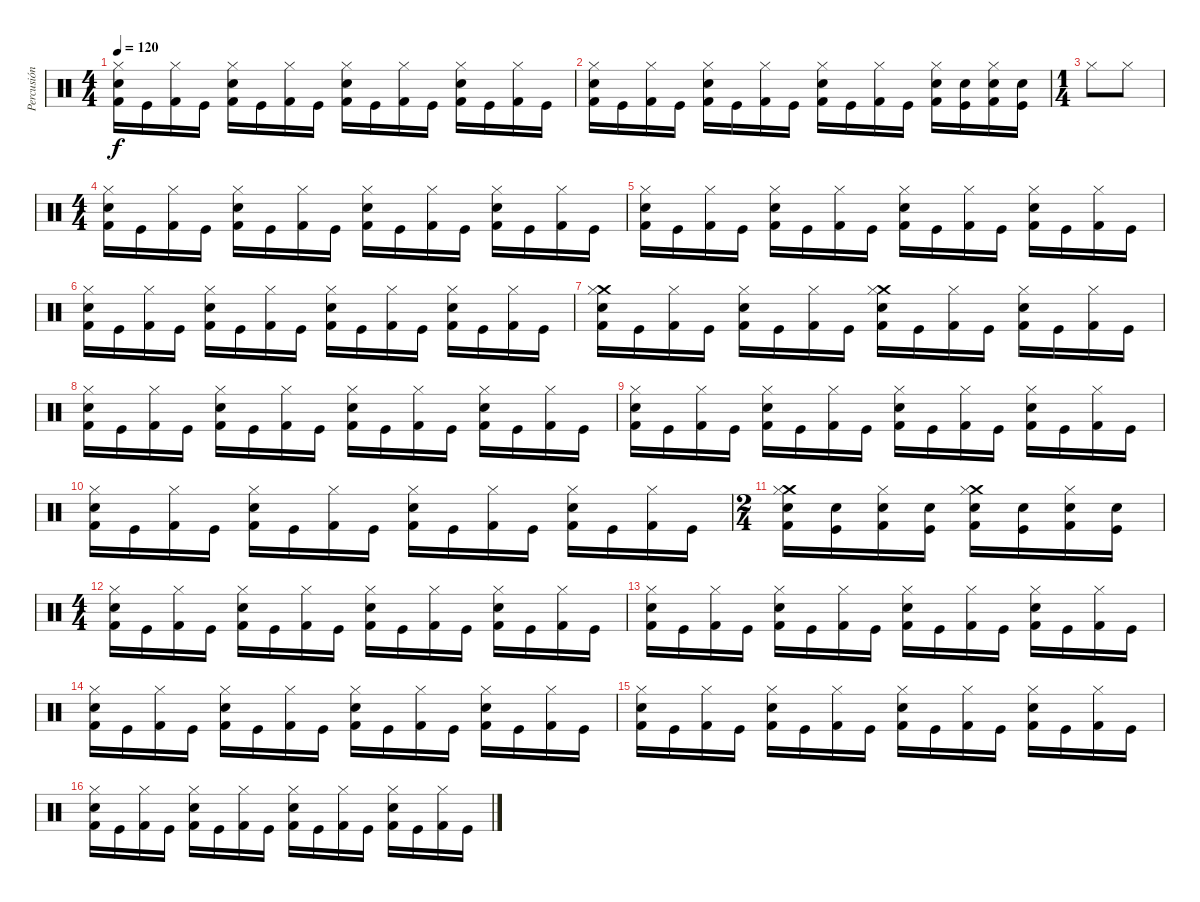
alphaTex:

\track ("Percusión" "Percusión") {instrument percussion}
\staff {score}
\articulation defaults
\ts (4 4)
\tempo 120
\clef neutral
\ks c
("Hi-Hat (closed)" "Snare (hit) 2" "Kick (hit) 2").16{dy f} "Kick (hit)".16 ("Hi-Hat (closed)" "Kick (hit) 2").16 "Kick (hit)".16 ("Hi-Hat (closed)" "Snare (hit) 2" "Kick (hit) 2").16 "Kick (hit)".16 ("Hi-Hat (closed)" "Kick (hit) 2").16 "Kick (hit)".16 ("Hi-Hat (closed)" "Snare (hit) 2" "Kick (hit) 2").16 "Kick (hit)".16 ("Hi-Hat (closed)" "Kick (hit) 2").16 "Kick (hit)".16 ("Hi-Hat (closed)" "Snare (hit) 2" "Kick (hit) 2").16 "Kick (hit)".16 ("Hi-Hat (closed)" "Kick (hit) 2").16 "Kick (hit)".16 |
("Hi-Hat (closed)" "Snare (hit) 2" "Kick (hit) 2").16 "Kick (hit)".16 ("Hi-Hat (closed)" "Kick (hit) 2").16 "Kick (hit)".16 ("Hi-Hat (closed)" "Snare (hit) 2" "Kick (hit) 2").16 "Kick (hit)".16 ("Hi-Hat (closed)" "Kick (hit) 2").16 "Kick (hit)".16 ("Hi-Hat (closed)" "Snare (hit) 2" "Kick (hit) 2").16 "Kick (hit)".16 ("Hi-Hat (closed)" "Kick (hit) 2").16 "Kick (hit)".16 ("Hi-Hat (closed)" "Snare (hit) 2" "Kick (hit) 2").16 ("Snare (hit) 2" "Kick (hit)").16 ("Hi-Hat (closed)" "Snare (hit) 2" "Kick (hit) 2").16 ("Snare (hit) 2" "Kick (hit)").16 |
\ts (1 4)
"Hi-Hat (closed)".8 "Hi-Hat (closed)".8 |
\ts (4 4)
("Hi-Hat (closed)" "Snare (hit) 2" "Kick (hit) 2").16 "Kick (hit)".16 ("Hi-Hat (closed)" "Kick (hit) 2").16 "Kick (hit)".16 ("Hi-Hat (closed)" "Snare (hit) 2" "Kick (hit) 2").16 "Kick (hit)".16 ("Hi-Hat (closed)" "Kick (hit) 2").16 "Kick (hit)".16 ("Hi-Hat (closed)" "Snare (hit) 2" "Kick (hit) 2").16 "Kick (hit)".16 ("Hi-Hat (closed)" "Kick (hit) 2").16 "Kick (hit)".16 ("Hi-Hat (closed)" "Snare (hit) 2" "Kick (hit) 2").16 "Kick (hit)".16 ("Hi-Hat (closed)" "Kick (hit) 2").16 "Kick (hit)".16 |
("Hi-Hat (closed)" "Snare (hit) 2" "Kick (hit) 2").16 "Kick (hit)".16 ("Hi-Hat (closed)" "Kick (hit) 2").16 "Kick (hit)".16 ("Hi-Hat (closed)" "Snare (hit) 2" "Kick (hit) 2").16 "Kick (hit)".16 ("Hi-Hat (closed)" "Kick (hit) 2").16 "Kick (hit)".16 ("Hi-Hat (closed)" "Snare (hit) 2" "Kick (hit) 2").16 "Kick (hit)".16 ("Hi-Hat (closed)" "Kick (hit) 2").16 "Kick (hit)".16 ("Hi-Hat (closed)" "Snare (hit) 2" "Kick (hit) 2").16 "Kick (hit)".16 ("Hi-Hat (closed)" "Kick (hit) 2").16 "Kick (hit)".16 |
("Hi-Hat (closed)" "Snare (hit) 2" "Kick (hit) 2").16 "Kick (hit)".16 ("Hi-Hat (closed)" "Kick (hit) 2").16 "Kick (hit)".16 ("Hi-Hat (closed)" "Snare (hit) 2" "Kick (hit) 2").16 "Kick (hit)".16 ("Hi-Hat (closed)" "Kick (hit) 2").16 "Kick (hit)".16 ("Hi-Hat (closed)" "Snare (hit) 2" "Kick (hit) 2").16 "Kick (hit)".16 ("Hi-Hat (closed)" "Kick (hit) 2").16 "Kick (hit)".16 ("Hi-Hat (closed)" "Snare (hit) 2" "Kick (hit) 2").16 "Kick (hit)".16 ("Hi-Hat (closed)" "Kick (hit) 2").16 "Kick (hit)".16 |
("Crash medium (hit)" "Hi-Hat (closed)" "Snare (hit) 2" "Kick (hit) 2").16 "Kick (hit)".16 ("Hi-Hat (closed)" "Kick (hit) 2").16 "Kick (hit)".16 ("Hi-Hat (closed)" "Snare (hit) 2" "Kick (hit) 2").16 "Kick (hit)".16 ("Hi-Hat (closed)" "Kick (hit) 2").16 "Kick (hit)".16 ("Crash medium (hit)" "Hi-Hat (closed)" "Snare (hit) 2" "Kick (hit) 2").16 "Kick (hit)".16 ("Hi-Hat (closed)" "Kick (hit) 2").16 "Kick (hit)".16 ("Hi-Hat (closed)" "Snare (hit) 2" "Kick (hit) 2").16 "Kick (hit)".16 ("Hi-Hat (closed)" "Kick (hit) 2").16 "Kick (hit)".16 |
("Hi-Hat (closed)" "Snare (hit) 2" "Kick (hit) 2").16 "Kick (hit)".16 ("Hi-Hat (closed)" "Kick (hit) 2").16 "Kick (hit)".16 ("Hi-Hat (closed)" "Snare (hit) 2" "Kick (hit) 2").16 "Kick (hit)".16 ("Hi-Hat (closed)" "Kick (hit) 2").16 "Kick (hit)".16 ("Hi-Hat (closed)" "Snare (hit) 2" "Kick (hit) 2").16 "Kick (hit)".16 ("Hi-Hat (closed)" "Kick (hit) 2").16 "Kick (hit)".16 ("Hi-Hat (closed)" "Snare (hit) 2" "Kick (hit) 2").16 "Kick (hit)".16 ("Hi-Hat (closed)" "Kick (hit) 2").16 "Kick (hit)".16 |
("Hi-Hat (closed)" "Snare (hit) 2" "Kick (hit) 2").16 "Kick (hit)".16 ("Hi-Hat (closed)" "Kick (hit) 2").16 "Kick (hit)".16 ("Hi-Hat (closed)" "Snare (hit) 2" "Kick (hit) 2").16 "Kick (hit)".16 ("Hi-Hat (closed)" "Kick (hit) 2").16 "Kick (hit)".16 ("Hi-Hat (closed)" "Snare (hit) 2" "Kick (hit) 2").16 "Kick (hit)".16 ("Hi-Hat (closed)" "Kick (hit) 2").16 "Kick (hit)".16 ("Hi-Hat (closed)" "Snare (hit) 2" "Kick (hit) 2").16 "Kick (hit)".16 ("Hi-Hat (closed)" "Kick (hit) 2").16 "Kick (hit)".16 |
("Hi-Hat (closed)" "Snare (hit) 2" "Kick (hit) 2").16 "Kick (hit)".16 ("Hi-Hat (closed)" "Kick (hit) 2").16 "Kick (hit)".16 ("Hi-Hat (closed)" "Snare (hit) 2" "Kick (hit) 2").16 "Kick (hit)".16 ("Hi-Hat (closed)" "Kick (hit) 2").16 "Kick (hit)".16 ("Hi-Hat (closed)" "Snare (hit) 2" "Kick (hit) 2").16 "Kick (hit)".16 ("Hi-Hat (closed)" "Kick (hit) 2").16 "Kick (hit)".16 ("Hi-Hat (closed)" "Snare (hit) 2" "Kick (hit) 2").16 "Kick (hit)".16 ("Hi-Hat (closed)" "Kick (hit) 2").16 "Kick (hit)".16 |
\ts (2 4)
("Crash medium (hit)" "Hi-Hat (closed)" "Snare (hit) 2" "Kick (hit) 2").16 ("Snare (hit) 2" "Kick (hit)").16 ("Hi-Hat (closed)" "Snare (hit) 2" "Kick (hit) 2").16 ("Snare (hit) 2" "Kick (hit)").16 ("Crash medium (hit)" "Hi-Hat (closed)" "Snare (hit) 2" "Kick (hit) 2").16 ("Snare (hit) 2" "Kick (hit)").16 ("Hi-Hat (closed)" "Snare (hit) 2" "Kick (hit) 2").16 ("Snare (hit) 2" "Kick (hit)").16 |
\ts (4 4)
("Hi-Hat (closed)" "Snare (hit) 2" "Kick (hit) 2").16 "Kick (hit)".16 ("Hi-Hat (closed)" "Kick (hit) 2").16 "Kick (hit)".16 ("Hi-Hat (closed)" "Snare (hit) 2" "Kick (hit) 2").16 "Kick (hit)".16 ("Hi-Hat (closed)" "Kick (hit) 2").16 "Kick (hit)".16 ("Hi-Hat (closed)" "Snare (hit) 2" "Kick (hit) 2").16 "Kick (hit)".16 ("Hi-Hat (closed)" "Kick (hit) 2").16 "Kick (hit)".16 ("Hi-Hat (closed)" "Snare (hit) 2" "Kick (hit) 2").16 "Kick (hit)".16 ("Hi-Hat (closed)" "Kick (hit) 2").16 "Kick (hit)".16 |
("Hi-Hat (closed)" "Snare (hit) 2" "Kick (hit) 2").16 "Kick (hit)".16 ("Hi-Hat (closed)" "Kick (hit) 2").16 "Kick (hit)".16 ("Hi-Hat (closed)" "Snare (hit) 2" "Kick (hit) 2").16 "Kick (hit)".16 ("Hi-Hat (closed)" "Kick (hit) 2").16 "Kick (hit)".16 ("Hi-Hat (closed)" "Snare (hit) 2" "Kick (hit) 2").16 "Kick (hit)".16 ("Hi-Hat (closed)" "Kick (hit) 2").16 "Kick (hit)".16 ("Hi-Hat (closed)" "Snare (hit) 2" "Kick (hit) 2").16 "Kick (hit)".16 ("Hi-Hat (closed)" "Kick (hit) 2").16 "Kick (hit)".16 |
("Hi-Hat (closed)" "Snare (hit) 2" "Kick (hit) 2").16 "Kick (hit)".16 ("Hi-Hat (closed)" "Kick (hit) 2").16 "Kick (hit)".16 ("Hi-Hat (closed)" "Snare (hit) 2" "Kick (hit) 2").16 "Kick (hit)".16 ("Hi-Hat (closed)" "Kick (hit) 2").16 "Kick (hit)".16 ("Hi-Hat (closed)" "Snare (hit) 2" "Kick (hit) 2").16 "Kick (hit)".16 ("Hi-Hat (closed)" "Kick (hit) 2").16 "Kick (hit)".16 ("Hi-Hat (closed)" "Snare (hit) 2" "Kick (hit) 2").16 "Kick (hit)".16 ("Hi-Hat (closed)" "Kick (hit) 2").16 "Kick (hit)".16 |
("Hi-Hat (closed)" "Snare (hit) 2" "Kick (hit) 2").16 "Kick (hit)".16 ("Hi-Hat (closed)" "Kick (hit) 2").16 "Kick (hit)".16 ("Hi-Hat (closed)" "Snare (hit) 2" "Kick (hit) 2").16 "Kick (hit)".16 ("Hi-Hat (closed)" "Kick (hit) 2").16 "Kick (hit)".16 ("Hi-Hat (closed)" "Snare (hit) 2" "Kick (hit) 2").16 "Kick (hit)".16 ("Hi-Hat (closed)" "Kick (hit) 2").16 "Kick (hit)".16 ("Hi-Hat (closed)" "Snare (hit) 2" "Kick (hit) 2").16 "Kick (hit)".16 ("Hi-Hat (closed)" "Kick (hit) 2").16 "Kick (hit)".16 |
("Hi-Hat (closed)" "Snare (hit) 2" "Kick (hit) 2").16 "Kick (hit)".16 ("Hi-Hat (closed)" "Kick (hit) 2").16 "Kick (hit)".16 ("Hi-Hat (closed)" "Snare (hit) 2" "Kick (hit) 2").16 "Kick (hit)".16 ("Hi-Hat (closed)" "Kick (hit) 2").16 "Kick (hit)".16 ("Hi-Hat (closed)" "Snare (hit) 2" "Kick (hit) 2").16 "Kick (hit)".16 ("Hi-Hat (closed)" "Kick (hit) 2").16 "Kick (hit)".16 ("Hi-Hat (closed)" "Snare (hit) 2" "Kick (hit) 2").16 "Kick (hit)".16 ("Hi-Hat (closed)" "Kick (hit) 2").16 "Kick (hit)".16
